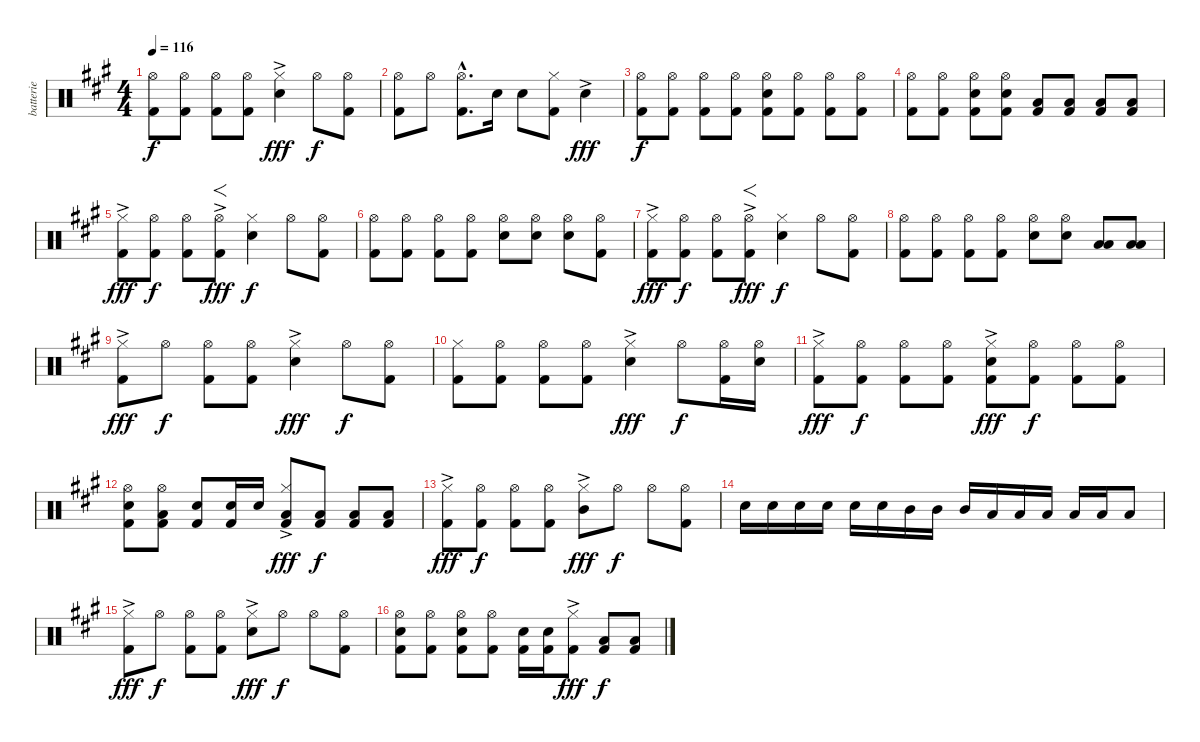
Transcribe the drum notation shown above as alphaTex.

\track ("batterie" "batterie") {instrument percussion}
\staff {score}
\articulation defaults
\ts (4 4)
\tempo 116
\clef neutral
\ks a
("Hi-Hat (open)" "Kick (hit) 2").8{dy f} ("Hi-Hat (open)" "Kick (hit) 2").8 ("Hi-Hat (open)" "Kick (hit) 2").8 ("Hi-Hat (open)" "Kick (hit) 2").8 ("Hi-Hat (closed)"{ac} "Snare (hit) 2").4{dy fff} "Hi-Hat (open)".8{dy f} ("Hi-Hat (open)" "Kick (hit) 2").8 |
("Hi-Hat (open)" "Kick (hit) 2").8 "Hi-Hat (open)".8 ("Hi-Hat (open)"{hac} "Kick (hit) 2"{hac}).8{d} "Snare (hit) 2".16 "Snare (hit) 2".8 ("Hi-Hat (closed)" "Kick (hit) 2").8 "Snare (hit) 2"{ac}.4{dy fff} |
("Hi-Hat (open)" "Kick (hit) 2").8{dy f} ("Hi-Hat (open)" "Kick (hit) 2").8 ("Hi-Hat (open)" "Kick (hit) 2").8 ("Hi-Hat (open)" "Kick (hit) 2").8 ("Hi-Hat (open)" "Kick (hit) 2" "Snare (hit) 2").8 ("Hi-Hat (open)" "Kick (hit) 2").8 ("Hi-Hat (open)" "Kick (hit) 2").8 ("Hi-Hat (open)" "Kick (hit) 2").8 |
("Hi-Hat (open)" "Kick (hit) 2").8 ("Hi-Hat (open)" "Kick (hit) 2").8 ("Hi-Hat (open)" "Snare (hit) 2" "Kick (hit) 2").8 ("Hi-Hat (open)" "Snare (hit) 2" "Kick (hit) 2").8 ("Low Tom (hit)" "Kick (hit) 2").8 ("Low Tom (hit)" "Kick (hit) 2").8 ("Kick (hit) 2" "Low Floor Tom (hit)").8 ("Kick (hit) 2" "Low Floor Tom (hit)").8 |
("Hi-Hat (closed)"{ac} "Kick (hit) 2").8{dy fff} ("Kick (hit) 2" "Hi-Hat (open)").8{dy f} ("Hi-Hat (open)" "Kick (hit) 2").8 ("Hi-Hat (open)"{ac} "Kick (hit) 2").8{f dy fff} ("Snare (hit) 2" "Hi-Hat (closed)").4{dy f} "Hi-Hat (open)".8 ("Hi-Hat (open)" "Kick (hit) 2").8 |
("Hi-Hat (open)" "Kick (hit) 2").8 ("Hi-Hat (open)" "Kick (hit) 2").8 ("Hi-Hat (open)" "Kick (hit) 2").8 ("Hi-Hat (open)" "Kick (hit) 2").8 ("Hi-Hat (open)" "Snare (hit) 2").8 ("Hi-Hat (open)" "Snare (hit) 2").8 ("Hi-Hat (open)" "Snare (hit) 2").8 ("Kick (hit) 2" "Hi-Hat (open)").8 |
("Hi-Hat (closed)"{ac} "Kick (hit) 2").8{dy fff} ("Kick (hit) 2" "Hi-Hat (open)").8{dy f} ("Hi-Hat (open)" "Kick (hit) 2").8 ("Hi-Hat (open)"{ac} "Kick (hit) 2").8{f dy fff} ("Snare (hit) 2" "Hi-Hat (closed)").4{dy f} "Hi-Hat (open)".8 ("Hi-Hat (open)" "Kick (hit) 2").8 |
("Hi-Hat (open)" "Kick (hit) 2").8 ("Hi-Hat (open)" "Kick (hit) 2").8 ("Hi-Hat (open)" "Kick (hit) 2").8 ("Hi-Hat (open)" "Kick (hit) 2").8 ("Snare (hit) 2" "Hi-Hat (open)").8 ("Snare (hit) 2" "Hi-Hat (open)").8 ("Low Floor Tom (hit)" "Low Tom (hit)").8 ("Low Floor Tom (hit)" "Low Tom (hit)").8 |
("Hi-Hat (closed)"{ac} "Kick (hit) 2").8{dy fff} "Hi-Hat (open)".8{dy f} ("Hi-Hat (open)" "Kick (hit) 2").8 ("Hi-Hat (open)" "Kick (hit) 2").8 ("Hi-Hat (closed)"{ac} "Snare (hit) 2").4{dy fff} "Hi-Hat (open)".8{dy f} ("Hi-Hat (open)" "Kick (hit) 2").8 |
("Hi-Hat (closed)" "Kick (hit) 2").8 ("Hi-Hat (open)" "Kick (hit) 2").8 ("Hi-Hat (open)" "Kick (hit) 2").8 ("Hi-Hat (open)" "Kick (hit) 2").8 ("Hi-Hat (closed)"{ac} "Snare (hit) 2").4{dy fff} "Hi-Hat (open)".8{dy f} ("Hi-Hat (open)" "Kick (hit) 2").16 ("Hi-Hat (open)" "Snare (hit) 2").16 |
("Hi-Hat (closed)"{ac} "Kick (hit) 2").8{dy fff} ("Kick (hit) 2" "Hi-Hat (open)").8{dy f} ("Hi-Hat (open)" "Kick (hit) 2").8 ("Hi-Hat (open)" "Kick (hit) 2").8 ("Snare (hit) 2" "Hi-Hat (closed)"{ac} "Kick (hit) 2").8{dy fff} ("Hi-Hat (open)" "Kick (hit) 2").8{dy f} ("Hi-Hat (open)" "Kick (hit) 2").8 ("Hi-Hat (open)" "Kick (hit) 2").8 |
("Hi-Hat (open)" "Snare (hit) 2" "Kick (hit) 2").8 ("Hi-Hat (open)" "Low Tom (hit)" "Kick (hit) 2").8 ("Snare (hit) 2" "Kick (hit) 2").8 ("Kick (hit) 2" "Snare (hit) 2").16 "Snare (hit) 2".16 ("Hi-Hat (closed)"{ac} "Low Tom (hit)" "Kick (hit) 2").8{dy fff} ("Low Tom (hit)" "Kick (hit) 2").8{dy f} ("Low Floor Tom (hit)" "Kick (hit) 2").8 ("Low Floor Tom (hit)" "Kick (hit) 2").8 |
("Kick (hit) 2" "Hi-Hat (closed)"{ac}).8{dy fff} ("Hi-Hat (open)" "Kick (hit) 2").8{dy f} ("Hi-Hat (open)" "Kick (hit) 2").8 ("Hi-Hat (open)" "Kick (hit) 2").8 ("Hi-Hat (closed)"{ac} "Mid Tom (hit)").8{dy fff} "Hi-Hat (open)".8{dy f} "Hi-Hat (open)".8 ("Hi-Hat (open)" "Kick (hit) 2").8 |
"Snare (hit) 2".16 "Snare (hit) 2".16 "Snare (hit) 2".16 "Snare (hit) 2".16 "Snare (hit) 2".16 "Snare (hit) 2".16 "Mid Tom (hit)".16 "Mid Tom (hit)".16 "Mid Tom (hit)".16 "Low Tom (hit)".16 "Low Tom (hit)".16 "Low Tom (hit)".16 "Low Floor Tom (hit)".16 "Low Floor Tom (hit)".16 "Low Floor Tom (hit)".8 |
("Hi-Hat (closed)"{ac} "Kick (hit) 2").8{dy fff} "Hi-Hat (open)".8{dy f} ("Hi-Hat (open)" "Kick (hit) 2").8 ("Hi-Hat (open)" "Kick (hit) 2").8 ("Hi-Hat (closed)"{ac} "Snare (hit) 2").8{dy fff} "Hi-Hat (open)".8{dy f} "Hi-Hat (open)".8 ("Hi-Hat (open)" "Kick (hit) 2").8 |
("Hi-Hat (open)" "Snare (hit) 2" "Kick (hit) 2").8 ("Hi-Hat (open)" "Kick (hit) 2").8 ("Hi-Hat (open)" "Snare (hit) 2" "Kick (hit) 2").8 ("Hi-Hat (open)" "Kick (hit) 2").8 ("Snare (hit) 2" "Kick (hit) 2").16 ("Kick (hit) 2" "Snare (hit) 2").16 ("Hi-Hat (closed)"{ac} "Kick (hit) 2").8{dy fff} ("Low Tom (hit)" "Kick (hit) 2").8{dy f} ("Kick (hit) 2" "Low Floor Tom (hit)").8
